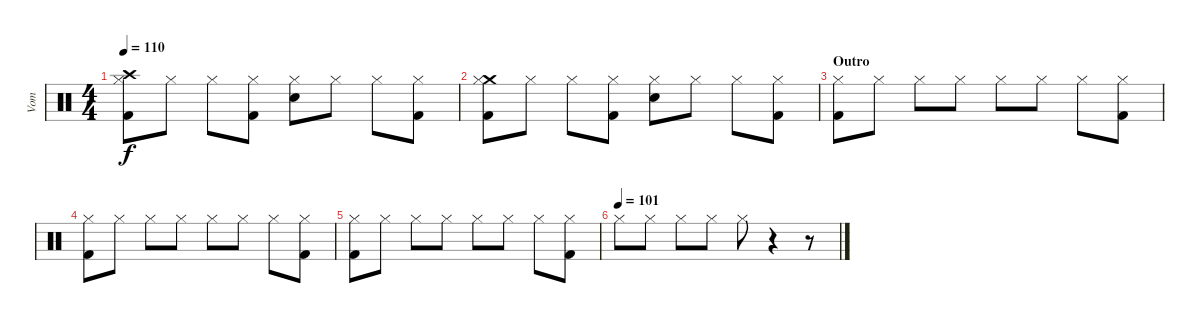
\track ("Vom" "Vom") {instrument percussion}
\staff {score}
\articulation defaults
\ts (4 4)
\tempo 110
\clef neutral
\ks c
("Crash high (hit)" "Kick (hit) 2" "Hi-Hat (closed)").8{dy f} "Hi-Hat (closed)".8 "Hi-Hat (closed)".8 ("Kick (hit) 2" "Hi-Hat (closed)").8 ("Snare (hit) 2" "Hi-Hat (closed)").8 "Hi-Hat (closed)".8 "Hi-Hat (closed)".8 ("Kick (hit) 2" "Hi-Hat (closed)").8 |
("Crash medium (hit)" "Kick (hit) 2" "Hi-Hat (closed)").8 "Hi-Hat (closed)".8 "Hi-Hat (closed)".8 ("Kick (hit) 2" "Hi-Hat (closed)").8 ("Snare (hit) 2" "Hi-Hat (closed)").8 "Hi-Hat (closed)".8 "Hi-Hat (closed)".8 ("Kick (hit) 2" "Hi-Hat (closed)").8 |
\section ("" "Outro")
("Kick (hit) 2" "Hi-Hat (closed)").8 "Hi-Hat (closed)".8 "Hi-Hat (closed)".8 "Hi-Hat (closed)".8 "Hi-Hat (closed)".8 "Hi-Hat (closed)".8 "Hi-Hat (closed)".8 ("Kick (hit) 2" "Hi-Hat (closed)").8 |
("Kick (hit) 2" "Hi-Hat (closed)").8 "Hi-Hat (closed)".8 "Hi-Hat (closed)".8 "Hi-Hat (closed)".8 "Hi-Hat (closed)".8 "Hi-Hat (closed)".8 "Hi-Hat (closed)".8 ("Kick (hit) 2" "Hi-Hat (closed)").8 |
("Kick (hit) 2" "Hi-Hat (closed)").8 "Hi-Hat (closed)".8 "Hi-Hat (closed)".8 "Hi-Hat (closed)".8 "Hi-Hat (closed)".8 "Hi-Hat (closed)".8 "Hi-Hat (closed)".8 ("Kick (hit) 2" "Hi-Hat (closed)").8 |
\tempo (101)
"Hi-Hat (closed)".8 "Hi-Hat (closed)".8 "Hi-Hat (closed)".8 "Hi-Hat (closed)".8 "Hi-Hat (closed)".8 r.4 r.8
